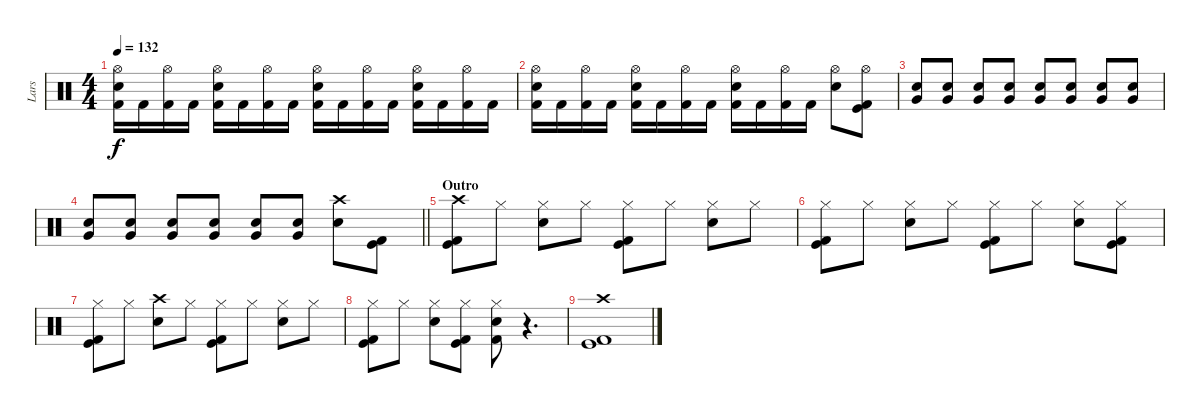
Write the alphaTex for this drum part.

\track ("Lars" "Lars") {instrument percussion}
\staff {score}
\articulation defaults
\ts (4 4)
\tempo 132
\clef neutral
\ks c
("Hi-Hat (open)" "Electric Snare (hit)" "Kick (hit) 2").16{dy f} "Kick (hit) 2".16 ("Hi-Hat (open)" "Kick (hit) 2").16 "Kick (hit) 2".16 ("Hi-Hat (open)" "Electric Snare (hit)" "Kick (hit) 2").16 "Kick (hit) 2".16 ("Hi-Hat (open)" "Kick (hit) 2").16 "Kick (hit) 2".16 ("Hi-Hat (open)" "Electric Snare (hit)" "Kick (hit) 2").16 "Kick (hit) 2".16 ("Hi-Hat (open)" "Kick (hit) 2").16 "Kick (hit) 2".16 ("Hi-Hat (open)" "Electric Snare (hit)" "Kick (hit) 2").16 "Kick (hit) 2".16 ("Hi-Hat (open)" "Kick (hit) 2").16 "Kick (hit) 2".16 |
("Hi-Hat (open)" "Electric Snare (hit)" "Kick (hit) 2").16 "Kick (hit) 2".16 ("Hi-Hat (open)" "Kick (hit) 2").16 "Kick (hit) 2".16 ("Hi-Hat (open)" "Electric Snare (hit)" "Kick (hit) 2").16 "Kick (hit) 2".16 ("Hi-Hat (open)" "Kick (hit) 2").16 "Kick (hit) 2".16 ("Hi-Hat (open)" "Electric Snare (hit)" "Kick (hit) 2").16 "Kick (hit) 2".16 ("Hi-Hat (open)" "Kick (hit) 2").16 "Kick (hit) 2".16 ("Hi-Hat (open)" "Electric Snare (hit)").8 ("Hi-Hat (open)" "Kick (hit)" "Kick (hit) 2").8 |
("Electric Snare (hit)" "Very Low Tom (hit)").8{volume 8} ("Electric Snare (hit)" "Very Low Tom (hit)").8{volume 16} ("Electric Snare (hit)" "Very Low Tom (hit)").8 ("Electric Snare (hit)" "Very Low Tom (hit)").8 ("Electric Snare (hit)" "Very Low Tom (hit)").8 ("Electric Snare (hit)" "Very Low Tom (hit)").8 ("Electric Snare (hit)" "Very Low Tom (hit)").8 ("Electric Snare (hit)" "Very Low Tom (hit)").8 |
\barLineRight lightlight
("Electric Snare (hit)" "Very Low Tom (hit)").8 ("Electric Snare (hit)" "Very Low Tom (hit)").8 ("Electric Snare (hit)" "Very Low Tom (hit)").8 ("Electric Snare (hit)" "Very Low Tom (hit)").8 ("Electric Snare (hit)" "Very Low Tom (hit)").8 ("Electric Snare (hit)" "Very Low Tom (hit)").8 ("Crash high (hit)" "Electric Snare (hit)").8 ("Kick (hit)" "Kick (hit) 2").8 |
\section ("" "Outro")
("Crash high (hit)" "Kick (hit)" "Kick (hit) 2").8 "Hi-Hat (closed)".8 ("Hi-Hat (closed)" "Electric Snare (hit)").8 "Hi-Hat (closed)".8 ("Hi-Hat (closed)" "Kick (hit)" "Kick (hit) 2").8 "Hi-Hat (closed)".8 ("Hi-Hat (closed)" "Electric Snare (hit)").8 "Hi-Hat (closed)".8 |
("Hi-Hat (closed)" "Kick (hit)" "Kick (hit) 2").8 "Hi-Hat (closed)".8 ("Hi-Hat (closed)" "Electric Snare (hit)").8 "Hi-Hat (closed)".8 ("Hi-Hat (closed)" "Kick (hit)" "Kick (hit) 2").8 "Hi-Hat (closed)".8 ("Hi-Hat (closed)" "Electric Snare (hit)").8 ("Hi-Hat (closed)" "Kick (hit)" "Kick (hit) 2").8 |
("Hi-Hat (closed)" "Kick (hit)" "Kick (hit) 2").8 "Hi-Hat (closed)".8 ("Crash high (hit)" "Electric Snare (hit)").8 "Hi-Hat (closed)".8 ("Hi-Hat (closed)" "Kick (hit)" "Kick (hit) 2").8 "Hi-Hat (closed)".8 ("Hi-Hat (closed)" "Electric Snare (hit)").8 "Hi-Hat (closed)".8 |
("Hi-Hat (closed)" "Kick (hit)" "Kick (hit) 2").8 "Hi-Hat (closed)".8 ("Hi-Hat (closed)" "Electric Snare (hit)").8 ("Hi-Hat (closed)" "Kick (hit)" "Kick (hit) 2").8 ("Hi-Hat (closed)" "Electric Snare (hit)" "Kick (hit) 2").8 r.4{d} |
("Crash high (hit)" "Kick (hit)" "Kick (hit) 2").1{volume 0}
